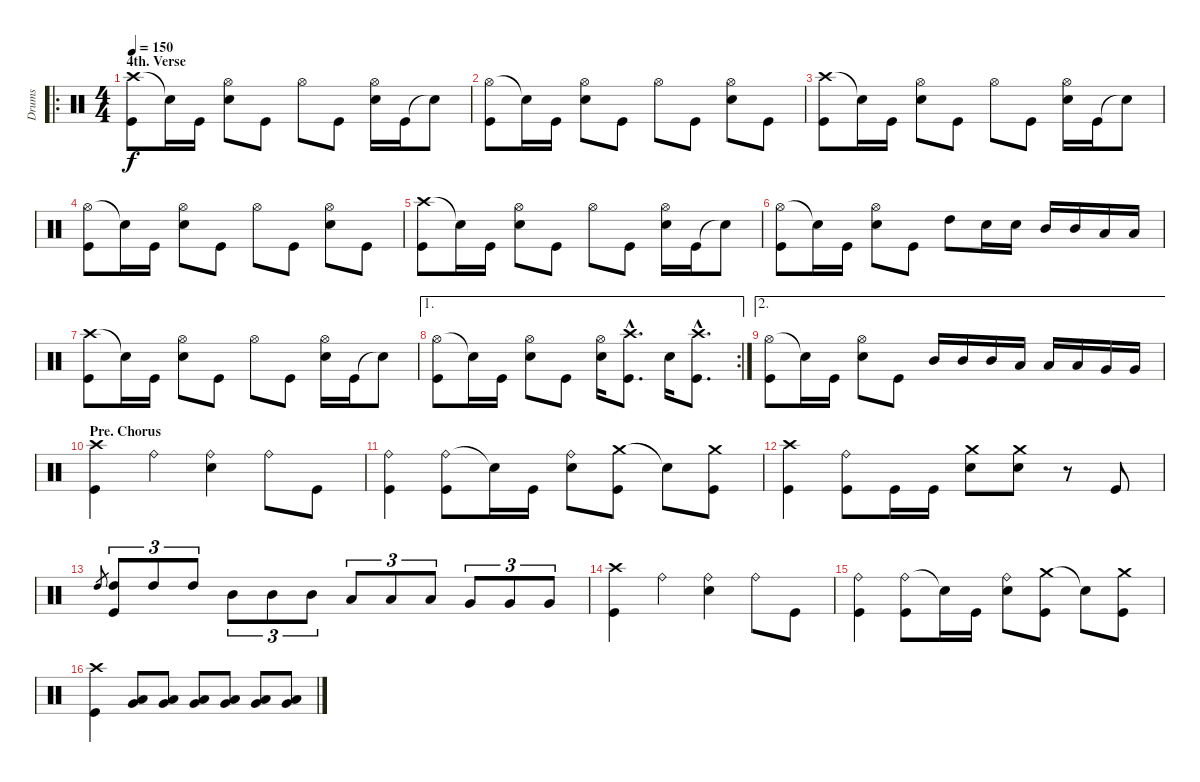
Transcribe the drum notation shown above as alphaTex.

\track ("Drums" "Drums") {instrument percussion}
\staff {score}
\articulation defaults
\ro
\ts (4 4)
\section ("" "4th. Verse")
\tempo 150
\clef neutral
\ks c
("Crash high (hit)" "Kick (hit)").8{dy f} "Snare (hit)"{t}.16 "Kick (hit)".16 ("Hi-Hat (open)" "Snare (hit) 2").8 "Kick (hit)".8 "Hi-Hat (open)".8 "Kick (hit)".8 ("Hi-Hat (open)" "Electric Snare (hit)").16 "Kick (hit)".16 "Snare (hit)"{t}.8 |
("Hi-Hat (open)" "Kick (hit)").8 "Snare (hit)"{t}.16 "Kick (hit)".16 ("Hi-Hat (open)" "Snare (hit) 2").8 "Kick (hit)".8 "Hi-Hat (open)".8 "Kick (hit)".8 ("Hi-Hat (open)" "Electric Snare (hit)").8 "Kick (hit)".8 |
("Crash high (hit)" "Kick (hit)").8 "Snare (hit)"{t}.16 "Kick (hit)".16 ("Hi-Hat (open)" "Snare (hit) 2").8 "Kick (hit)".8 "Hi-Hat (open)".8 "Kick (hit)".8 ("Hi-Hat (open)" "Electric Snare (hit)").16 "Kick (hit)".16 "Snare (hit)"{t}.8 |
("Hi-Hat (open)" "Kick (hit)").8 "Snare (hit)"{t}.16 "Kick (hit)".16 ("Hi-Hat (open)" "Snare (hit) 2").8 "Kick (hit)".8 "Hi-Hat (open)".8 "Kick (hit)".8 ("Hi-Hat (open)" "Electric Snare (hit)").8 "Kick (hit)".8 |
("Crash high (hit)" "Kick (hit)").8 "Snare (hit)"{t}.16 "Kick (hit)".16 ("Hi-Hat (open)" "Snare (hit) 2").8 "Kick (hit)".8 "Hi-Hat (open)".8 "Kick (hit)".8 ("Hi-Hat (open)" "Electric Snare (hit)").16 "Kick (hit)".16 "Snare (hit)"{t}.8 |
("Hi-Hat (open)" "Kick (hit)").8 "Snare (hit)"{t}.16 "Kick (hit)".16 ("Hi-Hat (open)" "Snare (hit) 2").8 "Kick (hit)".8 "High Tom (hit)".8 "Snare (hit) 2".16 "Snare (hit) 2".16 "Mid Tom (hit)".16 "Mid Tom (hit)".16 "Low Tom (hit)".16 "Low Tom (hit)".16 |
("Crash high (hit)" "Kick (hit)").8 "Snare (hit)"{t}.16 "Kick (hit)".16 ("Hi-Hat (open)" "Snare (hit) 2").8 "Kick (hit)".8 "Hi-Hat (open)".8 "Kick (hit)".8 ("Hi-Hat (open)" "Electric Snare (hit)").16 "Kick (hit)".16 "Snare (hit)"{t}.8 |
\ae 1
\rc 2
("Hi-Hat (open)" "Kick (hit)").8 "Snare (hit)"{t}.16 "Kick (hit)".16 ("Hi-Hat (open)" "Snare (hit) 2").8 "Kick (hit)".8 ("Hi-Hat (open)" "Electric Snare (hit)").16 ("Crash high (hit)"{hac} "Kick (hit)"{hac}).8{d} "Electric Snare (hit)".16 ("Crash high (hit)"{hac} "Kick (hit)"{hac}).8{d} |
\ae 2
("Hi-Hat (open)" "Kick (hit)").8 "Snare (hit)"{t}.16 "Kick (hit)".16 ("Hi-Hat (open)" "Snare (hit) 2").8 "Kick (hit)".8 "Mid Tom (hit)".16 "Mid Tom (hit)".16 "Mid Tom (hit)".16 "Low Tom (hit)".16 "Low Tom (hit)".16 "Low Tom (hit)".16 "Very Low Tom (hit)".16 "Very Low Tom (hit)".16 |
\section ("" "Pre. Chorus")
("Crash high (hit)" "Kick (hit)").4 "Ride (bell)".4 ("Ride (bell)" "Electric Snare (hit)").4 "Ride (bell)".8 "Kick (hit)".8 |
("Ride (bell)" "Kick (hit)").4 ("Ride (bell)" "Kick (hit)").8 "Snare (hit)"{t}.16 "Kick (hit)".16 ("Ride (bell)" "Snare (hit) 2").8 ("Crash medium (hit)" "Kick (hit)").8 "Snare (hit)"{t}.8 ("Crash medium (hit)" "Kick (hit)").8 |
("Crash high (hit)" "Kick (hit)").4 ("Ride (bell)" "Kick (hit)").8 "Kick (hit)".16 "Kick (hit)".16 ("Crash medium (hit)" "Snare (hit) 2").8 ("Crash medium (hit)" "Snare (hit) 2").8 r.8 "Kick (hit)".8 |
"High Tom (hit)".8{gr} ("High Tom (hit)" "Kick (hit)").8{tu (3 2)} "High Tom (hit)".8{tu (3 2)} "High Tom (hit)".8{tu (3 2)} "Mid Tom (hit)".8{tu (3 2)} "Mid Tom (hit)".8{tu (3 2)} "Mid Tom (hit)".8{tu (3 2)} "Low Tom (hit)".8{tu (3 2)} "Low Tom (hit)".8{tu (3 2)} "Low Tom (hit)".8{tu (3 2)} "Very Low Tom (hit)".8{tu (3 2)} "Very Low Tom (hit)".8{tu (3 2)} "Very Low Tom (hit)".8{tu (3 2)} |
("Crash high (hit)" "Kick (hit)").4 "Ride (bell)".4 ("Ride (bell)" "Electric Snare (hit)").4 "Ride (bell)".8 "Kick (hit)".8 |
("Ride (bell)" "Kick (hit)").4 ("Ride (bell)" "Kick (hit)").8 "Snare (hit)"{t}.16 "Kick (hit)".16 ("Ride (bell)" "Snare (hit) 2").8 ("Crash medium (hit)" "Kick (hit)").8 "Snare (hit)"{t}.8 ("Crash medium (hit)" "Kick (hit)").8 |
("Crash high (hit)" "Kick (hit)").4 ("Very Low Tom (hit)" "Low Tom (hit)").8 ("Very Low Tom (hit)" "Low Tom (hit)").8 ("Very Low Tom (hit)" "Low Tom (hit)").8 ("Very Low Tom (hit)" "Low Tom (hit)").8 ("Very Low Tom (hit)" "Low Tom (hit)").8 ("Very Low Tom (hit)" "Low Tom (hit)").8
